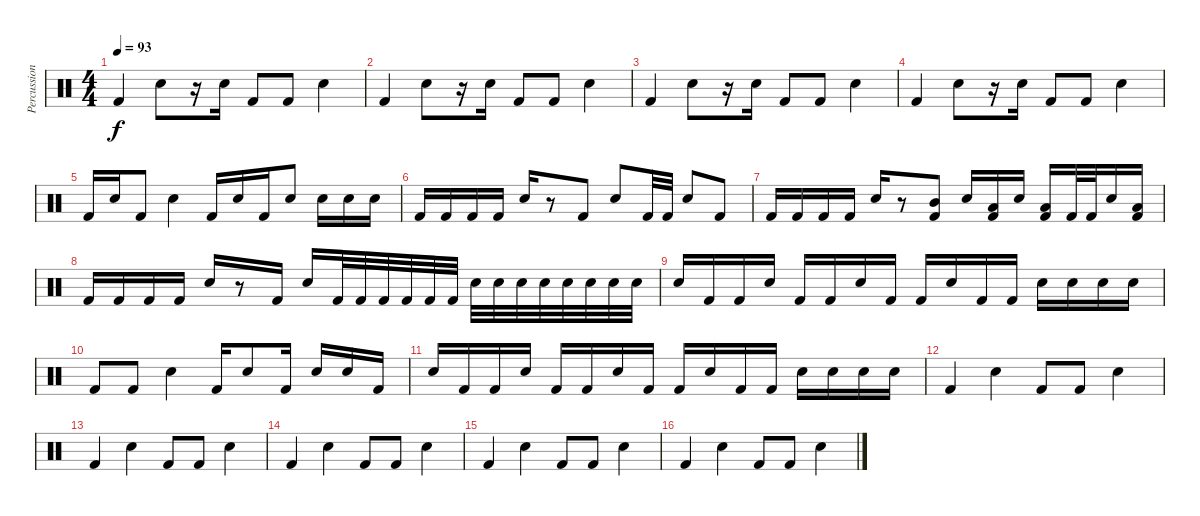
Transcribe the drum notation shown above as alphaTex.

\track ("Percussion" "Percussion") {instrument percussion}
\staff {score}
\articulation defaults
\ts (4 4)
\tempo 93
\clef neutral
\ks c "Kick (hit) 2".4{dy f} "Snare (hit) 2".8
r.16 "Snare (hit) 2".16 "Kick (hit) 2".8 "Kick (hit) 2".8 "Snare (hit) 2".4 |
"Kick (hit) 2".4 "Snare (hit) 2".8 r.16 "Snare (hit) 2".16 "Kick (hit) 2".8 "Kick (hit) 2".8 "Snare (hit) 2".4 |
"Kick (hit) 2".4 "Snare (hit) 2".8 r.16 "Snare (hit) 2".16 "Kick (hit) 2".8 "Kick (hit) 2".8 "Snare (hit) 2".4 |
"Kick (hit) 2".4 "Snare (hit) 2".8 r.16 "Snare (hit) 2".16 "Kick (hit) 2".8 "Kick (hit) 2".8 "Snare (hit) 2".4 |
"Kick (hit) 2".16 "Snare (hit) 2".16 "Kick (hit) 2".8 "Snare (hit) 2".4 "Kick (hit) 2".16 "Snare (hit) 2".16 "Kick (hit) 2".16 "Snare (hit) 2".8 "Snare (hit) 2".16 "Snare (hit) 2".16 "Snare (hit) 2".16 |
"Kick (hit) 2".16 "Kick (hit) 2".16 "Kick (hit) 2".16 "Kick (hit) 2".16 "Snare (hit) 2".16 r.8 "Kick (hit) 2".8 "Snare (hit) 2".8 "Kick (hit) 2".32 "Kick (hit) 2".32 "Snare (hit) 2".8 "Kick (hit) 2".8 |
"Kick (hit) 2".16 "Kick (hit) 2".16 "Kick (hit) 2".16 "Kick (hit) 2".16 "Snare (hit) 2".16 r.8 ("Mid Tom (hit)" "Kick (hit) 2").8 "Snare (hit) 2".16 ("Low Tom (hit)" "Kick (hit) 2").16 "Snare (hit) 2".16 ("Low Floor Tom (hit)" "Kick (hit) 2").16 "Kick (hit) 2".32 "Kick (hit) 2".32 "Snare (hit) 2".16 ("Low Floor Tom (hit)" "Kick (hit) 2").16 |
"Kick (hit) 2".16 "Kick (hit) 2".16 "Kick (hit) 2".16 "Kick (hit) 2".16 "Snare (hit) 2".16 r.8 "Kick (hit) 2".16 "Snare (hit) 2".16 "Kick (hit) 2".32 "Kick (hit) 2".32 "Kick (hit) 2".32 "Kick (hit) 2".32 "Kick (hit) 2".32 "Kick (hit) 2".32 "Snare (hit) 2".32 "Snare (hit) 2".32 "Snare (hit) 2".32 "Snare (hit) 2".32 "Snare (hit) 2".32 "Snare (hit) 2".32 "Snare (hit) 2".32 "Snare (hit) 2".32 |
"Snare (hit) 2".16 "Kick (hit) 2".16 "Kick (hit) 2".16 "Snare (hit) 2".16 "Kick (hit) 2".16 "Kick (hit) 2".16 "Snare (hit) 2".16 "Kick (hit) 2".16 "Kick (hit) 2".16 "Snare (hit) 2".16 "Kick (hit) 2".16 "Kick (hit) 2".16 "Snare (hit) 2".16 "Snare (hit) 2".16 "Snare (hit) 2".16 "Snare (hit) 2".16 |
"Kick (hit) 2".8 "Kick (hit) 2".8 "Snare (hit) 2".4 "Kick (hit) 2".16 "Snare (hit) 2".8 "Kick (hit) 2".16 "Snare (hit) 2".16 "Snare (hit) 2".16 "Kick (hit) 2".16 |
"Snare (hit) 2".16 "Kick (hit) 2".16 "Kick (hit) 2".16 "Snare (hit) 2".16 "Kick (hit) 2".16 "Kick (hit) 2".16 "Snare (hit) 2".16 "Kick (hit) 2".16 "Kick (hit) 2".16 "Snare (hit) 2".16 "Kick (hit) 2".16 "Kick (hit) 2".16 "Snare (hit) 2".16 "Snare (hit) 2".16 "Snare (hit) 2".16 "Snare (hit) 2".16 |
"Kick (hit) 2".4 "Snare (hit) 2".4 "Kick (hit) 2".8 "Kick (hit) 2".8 "Snare (hit) 2".4 |
"Kick (hit) 2".4 "Snare (hit) 2".4 "Kick (hit) 2".8 "Kick (hit) 2".8 "Snare (hit) 2".4 |
"Kick (hit) 2".4 "Snare (hit) 2".4 "Kick (hit) 2".8 "Kick (hit) 2".8 "Snare (hit) 2".4 |
"Kick (hit) 2".4 "Snare (hit) 2".4 "Kick (hit) 2".8 "Kick (hit) 2".8 "Snare (hit) 2".4 |
"Kick (hit) 2".4 "Snare (hit) 2".4 "Kick (hit) 2".8 "Kick (hit) 2".8 "Snare (hit) 2".4
